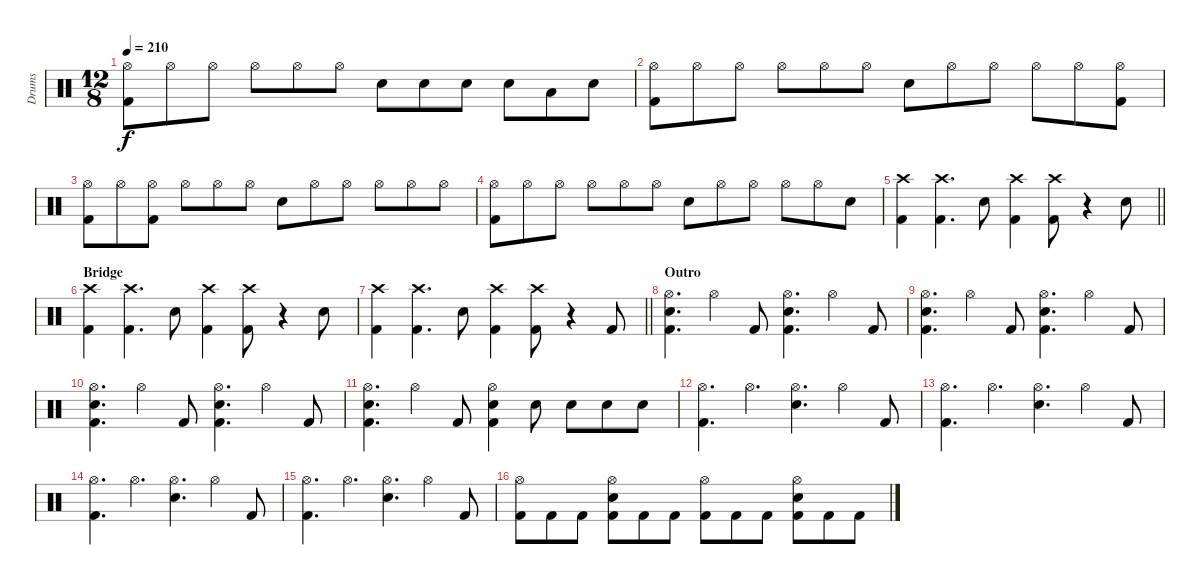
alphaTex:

\track ("Drums" "Drums") {instrument percussion}
\staff {score}
\articulation defaults
\ts (12 8)
\tempo 210
\clef neutral
\ks c
("Hi-Hat (open)" "Kick (hit) 2").8{dy f} "Hi-Hat (open)".8 "Hi-Hat (open)".8 "Hi-Hat (open)".8 "Hi-Hat (open)".8 "Hi-Hat (open)".8 "Electric Snare (hit)".8 "Electric Snare (hit)".8 "Electric Snare (hit)".8 "Electric Snare (hit)".8 "Low Tom (hit)".8 "Electric Snare (hit)".8 |
("Hi-Hat (open)" "Kick (hit) 2").8 "Hi-Hat (open)".8 "Hi-Hat (open)".8 "Hi-Hat (open)".8 "Hi-Hat (open)".8 "Hi-Hat (open)".8 "Electric Snare (hit)".8 "Hi-Hat (open)".8 "Hi-Hat (open)".8 "Hi-Hat (open)".8 "Hi-Hat (open)".8 ("Hi-Hat (open)" "Kick (hit) 2").8 |
("Hi-Hat (open)" "Kick (hit) 2").8 "Hi-Hat (open)".8 ("Hi-Hat (open)" "Kick (hit) 2").8 "Hi-Hat (open)".8 "Hi-Hat (open)".8 "Hi-Hat (open)".8 "Electric Snare (hit)".8 "Hi-Hat (open)".8 "Hi-Hat (open)".8 "Hi-Hat (open)".8 "Hi-Hat (open)".8 "Hi-Hat (open)".8 |
("Hi-Hat (open)" "Kick (hit) 2").8 "Hi-Hat (open)".8 "Hi-Hat (open)".8 "Hi-Hat (open)".8 "Hi-Hat (open)".8 "Hi-Hat (open)".8 "Electric Snare (hit)".8 "Hi-Hat (open)".8 "Hi-Hat (open)".8 "Hi-Hat (open)".8 "Hi-Hat (open)".8 "Electric Snare (hit)".8 |
\barLineRight lightlight
("Crash high (hit)" "Kick (hit) 2").4 ("Crash high (hit)" "Kick (hit) 2").4{d} "Electric Snare (hit)".8 ("Crash high (hit)" "Kick (hit) 2").4 ("Crash high (hit)" "Kick (hit) 2").8 r.4 "Electric Snare (hit)".8 |
\section ("" "Bridge")
("Crash high (hit)" "Kick (hit) 2").4 ("Crash high (hit)" "Kick (hit) 2").4{d} "Electric Snare (hit)".8 ("Crash high (hit)" "Kick (hit) 2").4 ("Crash high (hit)" "Kick (hit) 2").8 r.4 "Electric Snare (hit)".8 |
\barLineRight lightlight
("Crash high (hit)" "Kick (hit) 2").4 ("Crash high (hit)" "Kick (hit) 2").4{d} "Electric Snare (hit)".8 ("Crash high (hit)" "Kick (hit) 2").4 ("Crash high (hit)" "Kick (hit) 2").8 r.4 "Kick (hit) 2".8 |
\section ("" "Outro")
("Hi-Hat (open)" "Electric Snare (hit)" "Kick (hit) 2").4{d} "Hi-Hat (open)".4 "Kick (hit) 2".8 ("Hi-Hat (open)" "Electric Snare (hit)" "Kick (hit) 2").4{d} "Hi-Hat (open)".4 "Kick (hit) 2".8 |
("Hi-Hat (open)" "Electric Snare (hit)" "Kick (hit) 2").4{d} "Hi-Hat (open)".4 "Kick (hit) 2".8 ("Hi-Hat (open)" "Electric Snare (hit)" "Kick (hit) 2").4{d} "Hi-Hat (open)".4 "Kick (hit) 2".8 |
("Hi-Hat (open)" "Electric Snare (hit)" "Kick (hit) 2").4{d} "Hi-Hat (open)".4 "Kick (hit) 2".8 ("Hi-Hat (open)" "Electric Snare (hit)" "Kick (hit) 2").4{d} "Hi-Hat (open)".4 "Kick (hit) 2".8 |
("Hi-Hat (open)" "Electric Snare (hit)" "Kick (hit) 2").4{d} "Hi-Hat (open)".4 "Kick (hit) 2".8 ("Hi-Hat (open)" "Electric Snare (hit)" "Kick (hit) 2").4 "Electric Snare (hit)".8 "Electric Snare (hit)".8 "Electric Snare (hit)".8 "Electric Snare (hit)".8 |
("Hi-Hat (open)" "Kick (hit) 2").4{d} "Hi-Hat (open)".4{d} ("Hi-Hat (open)" "Electric Snare (hit)").4{d} "Hi-Hat (open)".4 "Kick (hit) 2".8 |
("Hi-Hat (open)" "Kick (hit) 2").4{d} "Hi-Hat (open)".4{d} ("Hi-Hat (open)" "Electric Snare (hit)").4{d} "Hi-Hat (open)".4 "Kick (hit) 2".8 |
("Hi-Hat (open)" "Kick (hit) 2").4{d} "Hi-Hat (open)".4{d} ("Hi-Hat (open)" "Electric Snare (hit)").4{d} "Hi-Hat (open)".4 "Kick (hit) 2".8 |
("Hi-Hat (open)" "Kick (hit) 2").4{d} "Hi-Hat (open)".4{d} ("Hi-Hat (open)" "Electric Snare (hit)").4{d} "Hi-Hat (open)".4 "Kick (hit) 2".8 |
("Hi-Hat (open)" "Kick (hit) 2").8 "Kick (hit) 2".8 "Kick (hit) 2".8 ("Hi-Hat (open)" "Electric Snare (hit)" "Kick (hit) 2").8 "Kick (hit) 2".8 "Kick (hit) 2".8 ("Hi-Hat (open)" "Kick (hit) 2").8 "Kick (hit) 2".8 "Kick (hit) 2".8 ("Hi-Hat (open)" "Electric Snare (hit)" "Kick (hit) 2").8 "Kick (hit) 2".8 "Kick (hit) 2".8
